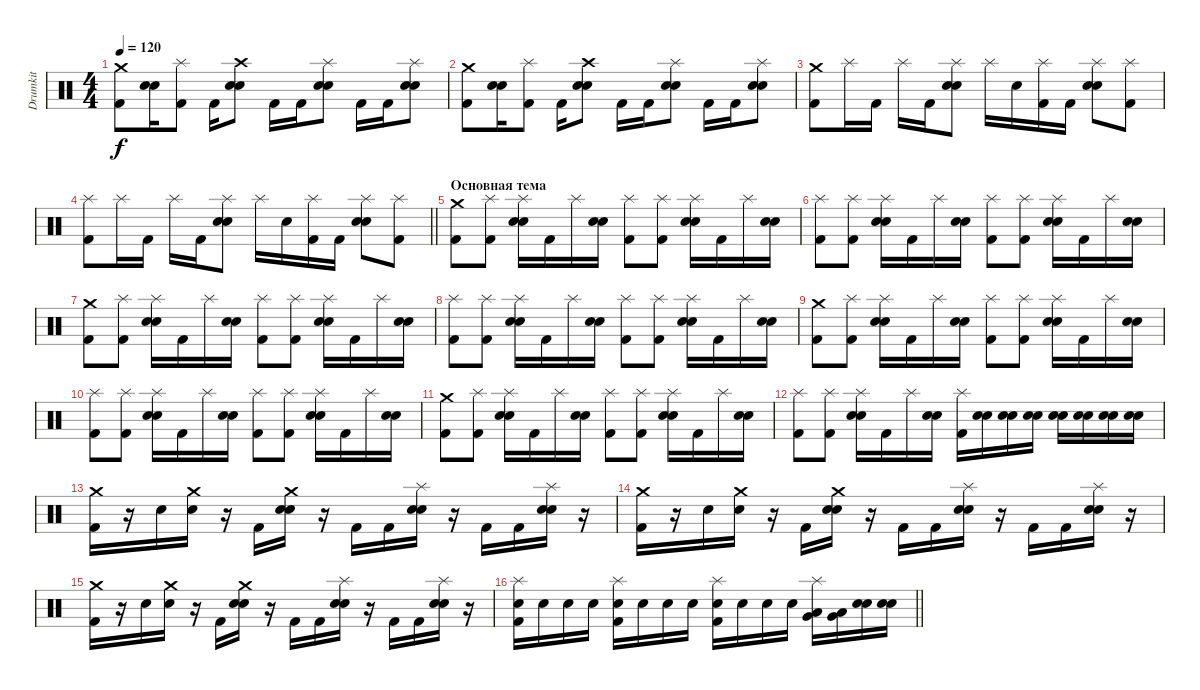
\track ("Drumkit" "Drumkit") {instrument percussion}
\staff {score}
\articulation defaults
\ts (4 4)
\tempo 120
\clef neutral
\ks c
("Crash medium (hit)" "Kick (hit) 2").8{dy f} ("Electric Snare (hit)" "Snare (hit) 2").16 ("Splash (hit)" "Kick (hit) 2").8 "Kick (hit) 2".16 ("Crash high (hit)" "Electric Snare (hit)" "Snare (hit) 2").8 "Kick (hit) 2".16 "Kick (hit) 2".16 ("Splash (hit)" "Electric Snare (hit)" "Snare (hit) 2").8 "Kick (hit) 2".16 "Kick (hit) 2".16 ("Splash (hit)" "Electric Snare (hit)" "Snare (hit) 2").8 |
("Crash medium (hit)" "Kick (hit) 2").8 ("Electric Snare (hit)" "Snare (hit) 2").16 ("Splash (hit)" "Kick (hit) 2").8 "Kick (hit) 2".16 ("Crash high (hit)" "Electric Snare (hit)" "Snare (hit) 2").8 "Kick (hit) 2".16 "Kick (hit) 2".16 ("Splash (hit)" "Electric Snare (hit)" "Snare (hit) 2").8 "Kick (hit) 2".16 "Kick (hit) 2".16 ("Splash (hit)" "Electric Snare (hit)" "Snare (hit) 2").8 |
("Crash medium (hit)" "Kick (hit) 2").8 "Splash (hit)".16 "Kick (hit) 2".16 "Splash (hit)".16 "Kick (hit) 2".16 ("Splash (hit)" "Electric Snare (hit)" "Snare (hit) 2").8 "Splash (hit)".16 "Electric Snare (hit)".16 ("Splash (hit)" "Kick (hit) 2").16 "Kick (hit) 2".16 ("Splash (hit)" "Electric Snare (hit)" "Snare (hit) 2").8 ("Splash (hit)" "Kick (hit) 2").8 |
\barLineRight lightlight
("Splash (hit)" "Kick (hit) 2").8 "Splash (hit)".16 "Kick (hit) 2".16 "Splash (hit)".16 "Kick (hit) 2".16 ("Splash (hit)" "Electric Snare (hit)" "Snare (hit) 2").8 "Splash (hit)".16 "Electric Snare (hit)".16 ("Splash (hit)" "Kick (hit) 2").16 "Kick (hit) 2".16 ("Splash (hit)" "Electric Snare (hit)" "Snare (hit) 2").8 ("Splash (hit)" "Kick (hit) 2").8 |
\section ("" "Основная тема")
("Crash medium (hit)" "Kick (hit) 2").8 ("Splash (hit)" "Kick (hit) 2").8 ("Splash (hit)" "Electric Snare (hit)" "Snare (hit) 2").16 "Kick (hit) 2".16 "Splash (hit)".16 ("Electric Snare (hit)" "Snare (hit) 2").16 ("Splash (hit)" "Kick (hit) 2").8 ("Splash (hit)" "Kick (hit) 2").8 ("Splash (hit)" "Electric Snare (hit)" "Snare (hit) 2").16 "Kick (hit) 2".16 "Splash (hit)".16 ("Electric Snare (hit)" "Snare (hit) 2").16 |
("Splash (hit)" "Kick (hit) 2").8 ("Splash (hit)" "Kick (hit) 2").8 ("Splash (hit)" "Electric Snare (hit)" "Snare (hit) 2").16 "Kick (hit) 2".16 "Splash (hit)".16 ("Electric Snare (hit)" "Snare (hit) 2").16 ("Splash (hit)" "Kick (hit) 2").8 ("Splash (hit)" "Kick (hit) 2").8 ("Splash (hit)" "Electric Snare (hit)" "Snare (hit) 2").16 "Kick (hit) 2".16 "Splash (hit)".16 ("Electric Snare (hit)" "Snare (hit) 2").16 |
("Crash medium (hit)" "Kick (hit) 2").8 ("Splash (hit)" "Kick (hit) 2").8 ("Splash (hit)" "Electric Snare (hit)" "Snare (hit) 2").16 "Kick (hit) 2".16 "Splash (hit)".16 ("Electric Snare (hit)" "Snare (hit) 2").16 ("Splash (hit)" "Kick (hit) 2").8 ("Splash (hit)" "Kick (hit) 2").8 ("Splash (hit)" "Electric Snare (hit)" "Snare (hit) 2").16 "Kick (hit) 2".16 "Splash (hit)".16 ("Electric Snare (hit)" "Snare (hit) 2").16 |
("Splash (hit)" "Kick (hit) 2").8 ("Splash (hit)" "Kick (hit) 2").8 ("Splash (hit)" "Electric Snare (hit)" "Snare (hit) 2").16 "Kick (hit) 2".16 "Splash (hit)".16 ("Electric Snare (hit)" "Snare (hit) 2").16 ("Splash (hit)" "Kick (hit) 2").8 ("Splash (hit)" "Kick (hit) 2").8 ("Splash (hit)" "Electric Snare (hit)" "Snare (hit) 2").16 "Kick (hit) 2".16 "Splash (hit)".16 ("Electric Snare (hit)" "Snare (hit) 2").16 |
("Crash medium (hit)" "Kick (hit) 2").8 ("Splash (hit)" "Kick (hit) 2").8 ("Splash (hit)" "Electric Snare (hit)" "Snare (hit) 2").16 "Kick (hit) 2".16 "Splash (hit)".16 ("Electric Snare (hit)" "Snare (hit) 2").16 ("Splash (hit)" "Kick (hit) 2").8 ("Splash (hit)" "Kick (hit) 2").8 ("Splash (hit)" "Electric Snare (hit)" "Snare (hit) 2").16 "Kick (hit) 2".16 "Splash (hit)".16 ("Electric Snare (hit)" "Snare (hit) 2").16 |
("Splash (hit)" "Kick (hit) 2").8 ("Splash (hit)" "Kick (hit) 2").8 ("Splash (hit)" "Electric Snare (hit)" "Snare (hit) 2").16 "Kick (hit) 2".16 "Splash (hit)".16 ("Electric Snare (hit)" "Snare (hit) 2").16 ("Splash (hit)" "Kick (hit) 2").8 ("Splash (hit)" "Kick (hit) 2").8 ("Splash (hit)" "Electric Snare (hit)" "Snare (hit) 2").16 "Kick (hit) 2".16 "Splash (hit)".16 ("Electric Snare (hit)" "Snare (hit) 2").16 |
("Crash medium (hit)" "Kick (hit) 2").8 ("Splash (hit)" "Kick (hit) 2").8 ("Splash (hit)" "Electric Snare (hit)" "Snare (hit) 2").16 "Kick (hit) 2".16 "Splash (hit)".16 ("Electric Snare (hit)" "Snare (hit) 2").16 ("Splash (hit)" "Kick (hit) 2").8 ("Splash (hit)" "Kick (hit) 2").8 ("Splash (hit)" "Electric Snare (hit)" "Snare (hit) 2").16 "Kick (hit) 2".16 "Splash (hit)".16 ("Electric Snare (hit)" "Snare (hit) 2").16 |
("Splash (hit)" "Kick (hit) 2").8 ("Splash (hit)" "Kick (hit) 2").8 ("Splash (hit)" "Electric Snare (hit)" "Snare (hit) 2").16 "Kick (hit) 2".16 "Splash (hit)".16 ("Electric Snare (hit)" "Snare (hit) 2").16 ("Splash (hit)" "Kick (hit) 2").16 ("Electric Snare (hit)" "Snare (hit) 2").16 ("Electric Snare (hit)" "Snare (hit) 2").16 ("Electric Snare (hit)" "Snare (hit) 2").16 ("Electric Snare (hit)" "Snare (hit) 2").16 ("Electric Snare (hit)" "Snare (hit) 2").16 ("Electric Snare (hit)" "Snare (hit) 2").16 ("Electric Snare (hit)" "Snare (hit) 2").16 |
("Crash medium (hit)" "Kick (hit) 2").16 r.16 "Electric Snare (hit)".16 ("Crash medium (hit)" "Electric Snare (hit)").16 r.16 "Kick (hit) 2".16 ("Crash medium (hit)" "Electric Snare (hit)" "Snare (hit) 2").16 r.16 "Kick (hit) 2".16 "Kick (hit) 2".16 ("Splash (hit)" "Electric Snare (hit)" "Snare (hit) 2").16 r.16 "Kick (hit) 2".16 "Kick (hit) 2".16 ("Splash (hit)" "Electric Snare (hit)" "Snare (hit) 2").16 r.16 |
("Crash medium (hit)" "Kick (hit) 2").16 r.16 "Electric Snare (hit)".16 ("Crash medium (hit)" "Electric Snare (hit)").16 r.16 "Kick (hit) 2".16 ("Crash medium (hit)" "Electric Snare (hit)" "Snare (hit) 2").16 r.16 "Kick (hit) 2".16 "Kick (hit) 2".16 ("Splash (hit)" "Electric Snare (hit)" "Snare (hit) 2").16 r.16 "Kick (hit) 2".16 "Kick (hit) 2".16 ("Splash (hit)" "Electric Snare (hit)" "Snare (hit) 2").16 r.16 |
("Crash medium (hit)" "Kick (hit) 2").16 r.16 "Electric Snare (hit)".16 ("Crash medium (hit)" "Electric Snare (hit)").16 r.16 "Kick (hit) 2".16 ("Crash medium (hit)" "Electric Snare (hit)" "Snare (hit) 2").16 r.16 "Kick (hit) 2".16 "Kick (hit) 2".16 ("Splash (hit)" "Electric Snare (hit)" "Snare (hit) 2").16 r.16 "Kick (hit) 2".16 "Kick (hit) 2".16 ("Splash (hit)" "Electric Snare (hit)" "Snare (hit) 2").16 r.16 |
\barLineRight lightlight
("Splash (hit)" "Electric Snare (hit)" "Kick (hit) 2").16 "Electric Snare (hit)".16 "Electric Snare (hit)".16 "Electric Snare (hit)".16 ("Splash (hit)" "Electric Snare (hit)" "Kick (hit) 2").16 "Electric Snare (hit)".16 "Electric Snare (hit)".16 "Electric Snare (hit)".16 ("Splash (hit)" "Electric Snare (hit)" "Kick (hit) 2").16 "Electric Snare (hit)".16 "Electric Snare (hit)".16 "Electric Snare (hit)".16 ("Splash (hit)" "Low Tom (hit)" "Very Low Tom (hit)").16 ("Low Tom (hit)" "Very Low Tom (hit)").16 ("Electric Snare (hit)" "Snare (hit) 2").16 ("Electric Snare (hit)" "Snare (hit) 2").16
